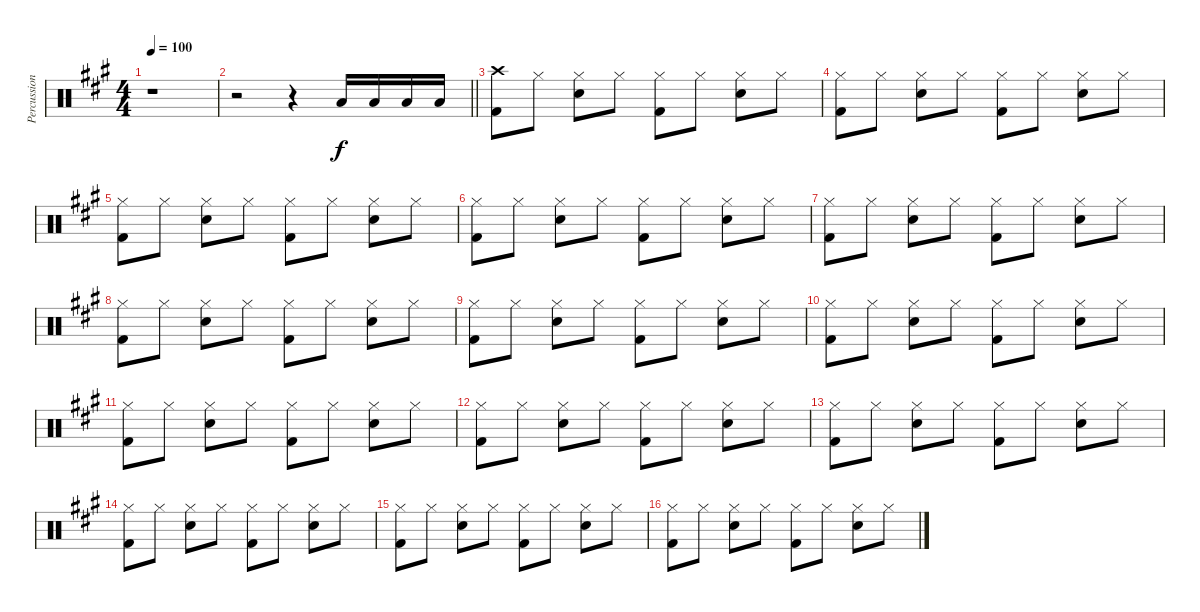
\track ("Percussion" "Percussion") {instrument percussion}
\staff {score}
\articulation defaults
\ts (4 4)
\tempo 100
\clef neutral
\ks a
r.1{dy ff} |
\barLineRight lightlight
r.2 r.4 "Low Tom (hit)".16{dy f} "Low Tom (hit)".16 "Low Floor Tom (hit)".16 "Low Floor Tom (hit)".16 |
("Crash high (hit)" "Kick (hit) 2").8 "Hi-Hat (closed)".8 ("Hi-Hat (closed)" "Snare (hit) 2").8 "Hi-Hat (closed)".8 ("Hi-Hat (closed)" "Kick (hit) 2").8 "Hi-Hat (closed)".8 ("Hi-Hat (closed)" "Snare (hit) 2").8 "Hi-Hat (closed)".8 |
("Hi-Hat (closed)" "Kick (hit) 2").8 "Hi-Hat (closed)".8 ("Hi-Hat (closed)" "Snare (hit) 2").8 "Hi-Hat (closed)".8 ("Hi-Hat (closed)" "Kick (hit) 2").8 "Hi-Hat (closed)".8 ("Hi-Hat (closed)" "Snare (hit) 2").8 "Hi-Hat (closed)".8 |
("Hi-Hat (closed)" "Kick (hit) 2").8 "Hi-Hat (closed)".8 ("Hi-Hat (closed)" "Snare (hit) 2").8 "Hi-Hat (closed)".8 ("Hi-Hat (closed)" "Kick (hit) 2").8 "Hi-Hat (closed)".8 ("Hi-Hat (closed)" "Snare (hit) 2").8 "Hi-Hat (closed)".8 |
("Hi-Hat (closed)" "Kick (hit) 2").8 "Hi-Hat (closed)".8 ("Hi-Hat (closed)" "Snare (hit) 2").8 "Hi-Hat (closed)".8 ("Hi-Hat (closed)" "Kick (hit) 2").8 "Hi-Hat (closed)".8 ("Hi-Hat (closed)" "Snare (hit) 2").8 "Hi-Hat (closed)".8 |
("Hi-Hat (closed)" "Kick (hit) 2").8 "Hi-Hat (closed)".8 ("Hi-Hat (closed)" "Snare (hit) 2").8 "Hi-Hat (closed)".8 ("Hi-Hat (closed)" "Kick (hit) 2").8 "Hi-Hat (closed)".8 ("Hi-Hat (closed)" "Snare (hit) 2").8 "Hi-Hat (closed)".8 |
("Hi-Hat (closed)" "Kick (hit) 2").8 "Hi-Hat (closed)".8 ("Hi-Hat (closed)" "Snare (hit) 2").8 "Hi-Hat (closed)".8 ("Hi-Hat (closed)" "Kick (hit) 2").8 "Hi-Hat (closed)".8 ("Hi-Hat (closed)" "Snare (hit) 2").8 "Hi-Hat (closed)".8 |
("Hi-Hat (closed)" "Kick (hit) 2").8 "Hi-Hat (closed)".8 ("Hi-Hat (closed)" "Snare (hit) 2").8 "Hi-Hat (closed)".8 ("Hi-Hat (closed)" "Kick (hit) 2").8 "Hi-Hat (closed)".8 ("Hi-Hat (closed)" "Snare (hit) 2").8 "Hi-Hat (closed)".8 |
("Hi-Hat (closed)" "Kick (hit) 2").8 "Hi-Hat (closed)".8 ("Hi-Hat (closed)" "Snare (hit) 2").8 "Hi-Hat (closed)".8 ("Hi-Hat (closed)" "Kick (hit) 2").8 "Hi-Hat (closed)".8 ("Hi-Hat (closed)" "Snare (hit) 2").8 "Hi-Hat (closed)".8 |
("Hi-Hat (closed)" "Kick (hit) 2").8 "Hi-Hat (closed)".8 ("Hi-Hat (closed)" "Snare (hit) 2").8 "Hi-Hat (closed)".8 ("Hi-Hat (closed)" "Kick (hit) 2").8 "Hi-Hat (closed)".8 ("Hi-Hat (closed)" "Snare (hit) 2").8 "Hi-Hat (closed)".8 |
("Hi-Hat (closed)" "Kick (hit) 2").8 "Hi-Hat (closed)".8 ("Hi-Hat (closed)" "Snare (hit) 2").8 "Hi-Hat (closed)".8 ("Hi-Hat (closed)" "Kick (hit) 2").8 "Hi-Hat (closed)".8 ("Hi-Hat (closed)" "Snare (hit) 2").8 "Hi-Hat (closed)".8 |
("Hi-Hat (closed)" "Kick (hit) 2").8 "Hi-Hat (closed)".8 ("Hi-Hat (closed)" "Snare (hit) 2").8 "Hi-Hat (closed)".8 ("Hi-Hat (closed)" "Kick (hit) 2").8 "Hi-Hat (closed)".8 ("Hi-Hat (closed)" "Snare (hit) 2").8 "Hi-Hat (closed)".8 |
("Hi-Hat (closed)" "Kick (hit) 2").8 "Hi-Hat (closed)".8 ("Hi-Hat (closed)" "Snare (hit) 2").8 "Hi-Hat (closed)".8 ("Hi-Hat (closed)" "Kick (hit) 2").8 "Hi-Hat (closed)".8 ("Hi-Hat (closed)" "Snare (hit) 2").8 "Hi-Hat (closed)".8 |
("Hi-Hat (closed)" "Kick (hit) 2").8 "Hi-Hat (closed)".8 ("Hi-Hat (closed)" "Snare (hit) 2").8 "Hi-Hat (closed)".8 ("Hi-Hat (closed)" "Kick (hit) 2").8 "Hi-Hat (closed)".8 ("Hi-Hat (closed)" "Snare (hit) 2").8 "Hi-Hat (closed)".8 |
("Hi-Hat (closed)" "Kick (hit) 2").8 "Hi-Hat (closed)".8 ("Hi-Hat (closed)" "Snare (hit) 2").8 "Hi-Hat (closed)".8 ("Hi-Hat (closed)" "Kick (hit) 2").8 "Hi-Hat (closed)".8 ("Hi-Hat (closed)" "Snare (hit) 2").8 "Hi-Hat (closed)".8
